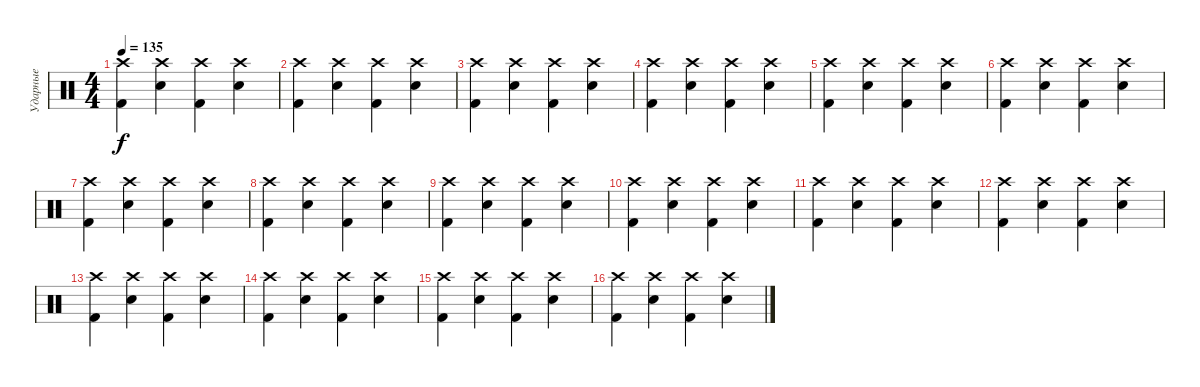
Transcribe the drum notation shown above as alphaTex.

\track ("Ударные" "Ударные") {instrument percussion}
\staff {score}
\articulation defaults
\ts (4 4)
\tempo 135
\clef neutral
\ks c
("Crash high (hit)" "Kick (hit) 2").4{dy f} ("Crash high (hit)" "Snare (hit) 2").4 ("Crash high (hit)" "Kick (hit) 2").4 ("Crash high (hit)" "Snare (hit) 2").4 |
("Crash high (hit)" "Kick (hit) 2").4 ("Crash high (hit)" "Snare (hit) 2").4 ("Crash high (hit)" "Kick (hit) 2").4 ("Crash high (hit)" "Snare (hit) 2").4 |
("Crash high (hit)" "Kick (hit) 2").4 ("Crash high (hit)" "Snare (hit) 2").4 ("Crash high (hit)" "Kick (hit) 2").4 ("Crash high (hit)" "Snare (hit) 2").4 |
("Crash high (hit)" "Kick (hit) 2").4 ("Crash high (hit)" "Snare (hit) 2").4 ("Crash high (hit)" "Kick (hit) 2").4 ("Crash high (hit)" "Snare (hit) 2").4 |
("Crash high (hit)" "Kick (hit) 2").4 ("Crash high (hit)" "Snare (hit) 2").4 ("Crash high (hit)" "Kick (hit) 2").4 ("Crash high (hit)" "Snare (hit) 2").4 |
("Crash high (hit)" "Kick (hit) 2").4 ("Crash high (hit)" "Snare (hit) 2").4 ("Crash high (hit)" "Kick (hit) 2").4 ("Crash high (hit)" "Snare (hit) 2").4 |
("Crash high (hit)" "Kick (hit) 2").4 ("Crash high (hit)" "Snare (hit) 2").4 ("Crash high (hit)" "Kick (hit) 2").4 ("Crash high (hit)" "Snare (hit) 2").4 |
("Crash high (hit)" "Kick (hit) 2").4 ("Crash high (hit)" "Snare (hit) 2").4 ("Crash high (hit)" "Kick (hit) 2").4 ("Crash high (hit)" "Snare (hit) 2").4 |
("Crash high (hit)" "Kick (hit) 2").4 ("Crash high (hit)" "Snare (hit) 2").4 ("Crash high (hit)" "Kick (hit) 2").4 ("Crash high (hit)" "Snare (hit) 2").4 |
("Crash high (hit)" "Kick (hit) 2").4 ("Crash high (hit)" "Snare (hit) 2").4 ("Crash high (hit)" "Kick (hit) 2").4 ("Crash high (hit)" "Snare (hit) 2").4 |
("Crash high (hit)" "Kick (hit) 2").4 ("Crash high (hit)" "Snare (hit) 2").4 ("Crash high (hit)" "Kick (hit) 2").4 ("Crash high (hit)" "Snare (hit) 2").4 |
("Crash high (hit)" "Kick (hit) 2").4 ("Crash high (hit)" "Snare (hit) 2").4 ("Crash high (hit)" "Kick (hit) 2").4 ("Crash high (hit)" "Snare (hit) 2").4 |
("Crash high (hit)" "Kick (hit) 2").4 ("Crash high (hit)" "Snare (hit) 2").4 ("Crash high (hit)" "Kick (hit) 2").4 ("Crash high (hit)" "Snare (hit) 2").4 |
("Crash high (hit)" "Kick (hit) 2").4 ("Crash high (hit)" "Snare (hit) 2").4 ("Crash high (hit)" "Kick (hit) 2").4 ("Crash high (hit)" "Snare (hit) 2").4 |
("Crash high (hit)" "Kick (hit) 2").4 ("Crash high (hit)" "Snare (hit) 2").4 ("Crash high (hit)" "Kick (hit) 2").4 ("Crash high (hit)" "Snare (hit) 2").4 |
("Crash high (hit)" "Kick (hit) 2").4 ("Crash high (hit)" "Snare (hit) 2").4 ("Crash high (hit)" "Kick (hit) 2").4 ("Crash high (hit)" "Snare (hit) 2").4
